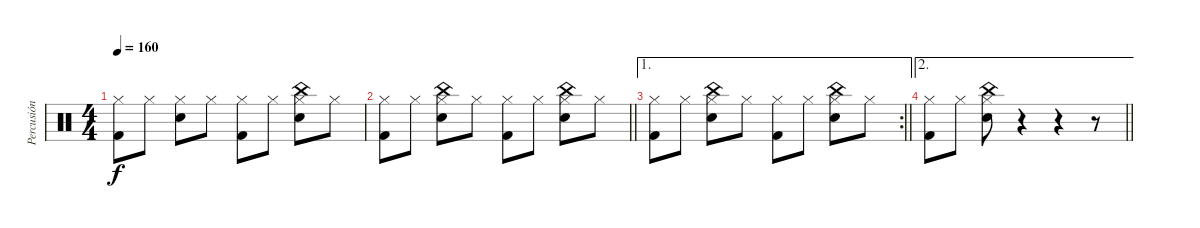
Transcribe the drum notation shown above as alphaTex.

\track ("Percusión" "Percusión") {instrument percussion}
\staff {score}
\articulation defaults
\ts (4 4)
\tempo 160
\clef neutral
\ks c
("Hi-Hat (closed)" "Kick (hit) 2").8{dy f} "Hi-Hat (closed)".8 ("Hi-Hat (closed)" "Electric Snare (hit)").8 "Hi-Hat (closed)".8 ("Hi-Hat (closed)" "Kick (hit) 2").8 "Hi-Hat (closed)".8 ("Hi-Hat (closed)" "Electric Snare (hit)" "China (hit)").8 "Hi-Hat (closed)".8 |
\barLineRight lightlight
("Hi-Hat (closed)" "Kick (hit) 2").8 "Hi-Hat (closed)".8 ("Hi-Hat (closed)" "Electric Snare (hit)" "China (hit)").8 "Hi-Hat (closed)".8 ("Hi-Hat (closed)" "Kick (hit) 2").8 "Hi-Hat (closed)".8 ("Hi-Hat (closed)" "Electric Snare (hit)" "China (hit)").8 "Hi-Hat (closed)".8 |
\ae 1
\rc 2
\barLineRight lightlight
("Hi-Hat (closed)" "Kick (hit) 2").8 "Hi-Hat (closed)".8 ("Hi-Hat (closed)" "Electric Snare (hit)" "China (hit)").8 "Hi-Hat (closed)".8 ("Hi-Hat (closed)" "Kick (hit) 2").8 "Hi-Hat (closed)".8 ("Hi-Hat (closed)" "Electric Snare (hit)" "China (hit)").8 "Hi-Hat (closed)".8 |
\ae 2
\barLineRight lightlight
("Hi-Hat (closed)" "Kick (hit) 2").8 "Hi-Hat (closed)".8 ("Hi-Hat (closed)" "Electric Snare (hit)" "China (hit)").8 r.4 r.4 r.8
